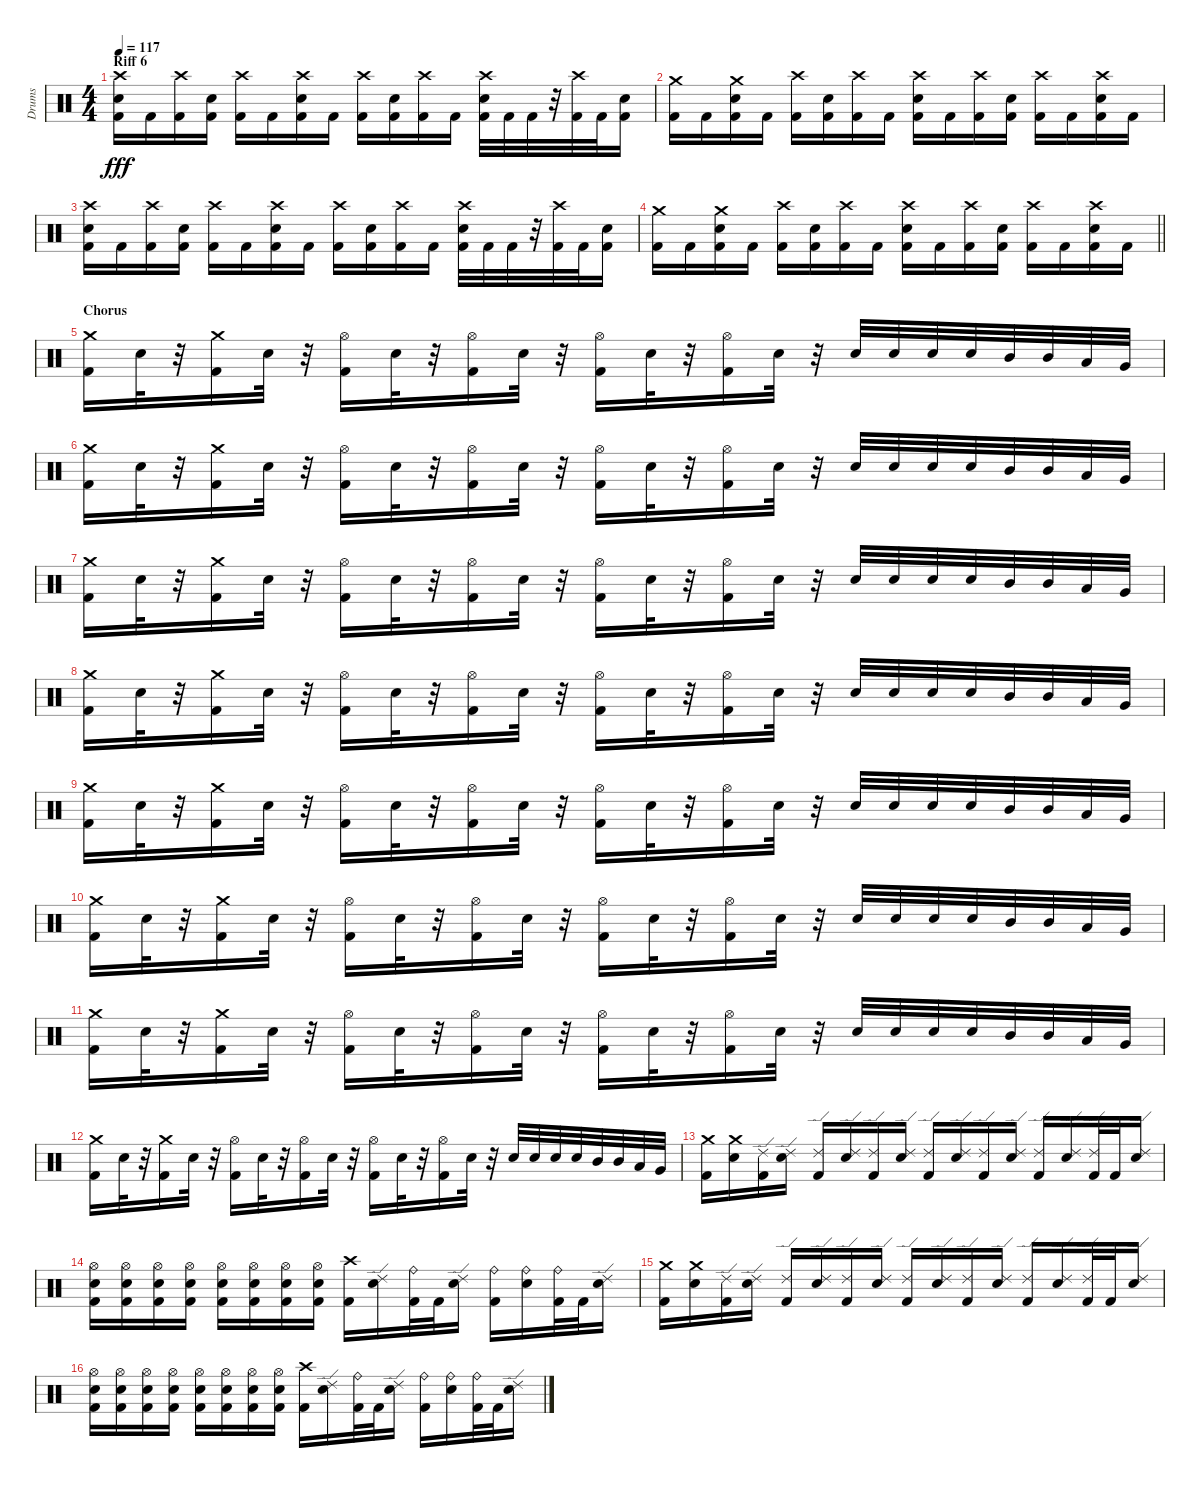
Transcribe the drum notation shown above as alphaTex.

\track ("Drums" "Drums") {instrument percussion}
\staff {score}
\articulation defaults
\ts (4 4)
\section ("" "Riff 6")
\tempo 117
\clef neutral
\ks c
("Kick (hit) 2" "Snare (hit) 2" "Crash high (hit)").16{dy fff} "Kick (hit) 2".16 ("Kick (hit) 2" "Crash high (hit)").16 ("Kick (hit) 2" "Snare (hit) 2").16 ("Kick (hit) 2" "Crash high (hit)").16 "Kick (hit) 2".16 ("Kick (hit) 2" "Snare (hit) 2" "Crash high (hit)").16 "Kick (hit) 2".16 ("Kick (hit) 2" "Crash high (hit)").16 ("Kick (hit) 2" "Snare (hit) 2").16 ("Kick (hit) 2" "Crash high (hit)").16 "Kick (hit) 2".16 ("Kick (hit) 2" "Snare (hit) 2" "Crash high (hit)").32 "Kick (hit) 2".32 "Kick (hit) 2".32 r.32 ("Kick (hit) 2" "Crash high (hit)").32 "Kick (hit) 2".32 ("Kick (hit) 2" "Snare (hit) 2").16 |
("Kick (hit) 2" "Crash medium (hit)").16 "Kick (hit) 2".16 ("Kick (hit) 2" "Snare (hit) 2" "Crash medium (hit)").16 "Kick (hit) 2".16 ("Kick (hit) 2" "Crash high (hit)").16 ("Kick (hit) 2" "Snare (hit) 2").16 ("Kick (hit) 2" "Crash high (hit)").16 "Kick (hit) 2".16 ("Kick (hit) 2" "Snare (hit) 2" "Crash high (hit)").16 "Kick (hit) 2".16 ("Kick (hit) 2" "Crash high (hit)").16 ("Kick (hit) 2" "Snare (hit) 2").16 ("Kick (hit) 2" "Crash high (hit)").16 "Kick (hit) 2".16 ("Kick (hit) 2" "Snare (hit) 2" "Crash high (hit)").16 "Kick (hit) 2".16 |
("Kick (hit) 2" "Snare (hit) 2" "Crash high (hit)").16 "Kick (hit) 2".16 ("Kick (hit) 2" "Crash high (hit)").16 ("Kick (hit) 2" "Snare (hit) 2").16 ("Kick (hit) 2" "Crash high (hit)").16 "Kick (hit) 2".16 ("Kick (hit) 2" "Snare (hit) 2" "Crash high (hit)").16 "Kick (hit) 2".16 ("Kick (hit) 2" "Crash high (hit)").16 ("Kick (hit) 2" "Snare (hit) 2").16 ("Kick (hit) 2" "Crash high (hit)").16 "Kick (hit) 2".16 ("Kick (hit) 2" "Snare (hit) 2" "Crash high (hit)").32 "Kick (hit) 2".32 "Kick (hit) 2".32 r.32 ("Kick (hit) 2" "Crash high (hit)").32 "Kick (hit) 2".32 ("Kick (hit) 2" "Snare (hit) 2").16 |
\barLineRight lightlight
("Kick (hit) 2" "Crash medium (hit)").16 "Kick (hit) 2".16 ("Kick (hit) 2" "Snare (hit) 2" "Crash medium (hit)").16 "Kick (hit) 2".16 ("Kick (hit) 2" "Crash high (hit)").16 ("Kick (hit) 2" "Snare (hit) 2").16 ("Kick (hit) 2" "Crash high (hit)").16 "Kick (hit) 2".16 ("Kick (hit) 2" "Snare (hit) 2" "Crash high (hit)").16 "Kick (hit) 2".16 ("Kick (hit) 2" "Crash high (hit)").16 ("Kick (hit) 2" "Snare (hit) 2").16 ("Kick (hit) 2" "Crash high (hit)").16 "Kick (hit) 2".16 ("Kick (hit) 2" "Snare (hit) 2" "Crash high (hit)").16 "Kick (hit) 2".16 |
\section ("" "Chorus")
("Kick (hit) 2" "Crash medium (hit)").16 "Snare (hit) 2".32 r.32 ("Kick (hit) 2" "Crash medium (hit)").16 "Snare (hit) 2".32 r.32 ("Kick (hit) 2" "Hi-Hat (open)").16 "Snare (hit) 2".32 r.32 ("Kick (hit) 2" "Hi-Hat (open)").16 "Snare (hit) 2".32 r.32 ("Kick (hit) 2" "Hi-Hat (open)").16 "Snare (hit) 2".32 r.32 ("Kick (hit) 2" "Hi-Hat (open)").16 "Snare (hit) 2".32 r.32 "Snare (hit) 2".32 "Snare (hit) 2".32 "Snare (hit) 2".32 "Snare (hit) 2".32 "Mid Tom (hit)".32 "Mid Tom (hit)".32 "Low Tom (hit)".32 "Very Low Tom (hit)".32 |
("Kick (hit) 2" "Crash medium (hit)").16 "Snare (hit) 2".32 r.32 ("Kick (hit) 2" "Crash medium (hit)").16 "Snare (hit) 2".32 r.32 ("Kick (hit) 2" "Hi-Hat (open)").16 "Snare (hit) 2".32 r.32 ("Kick (hit) 2" "Hi-Hat (open)").16 "Snare (hit) 2".32 r.32 ("Kick (hit) 2" "Hi-Hat (open)").16 "Snare (hit) 2".32 r.32 ("Kick (hit) 2" "Hi-Hat (open)").16 "Snare (hit) 2".32 r.32 "Snare (hit) 2".32 "Snare (hit) 2".32 "Snare (hit) 2".32 "Snare (hit) 2".32 "Mid Tom (hit)".32 "Mid Tom (hit)".32 "Low Tom (hit)".32 "Very Low Tom (hit)".32 |
("Kick (hit) 2" "Crash medium (hit)").16 "Snare (hit) 2".32 r.32 ("Kick (hit) 2" "Crash medium (hit)").16 "Snare (hit) 2".32 r.32 ("Kick (hit) 2" "Hi-Hat (open)").16 "Snare (hit) 2".32 r.32 ("Kick (hit) 2" "Hi-Hat (open)").16 "Snare (hit) 2".32 r.32 ("Kick (hit) 2" "Hi-Hat (open)").16 "Snare (hit) 2".32 r.32 ("Kick (hit) 2" "Hi-Hat (open)").16 "Snare (hit) 2".32 r.32 "Snare (hit) 2".32 "Snare (hit) 2".32 "Snare (hit) 2".32 "Snare (hit) 2".32 "Mid Tom (hit)".32 "Mid Tom (hit)".32 "Low Tom (hit)".32 "Very Low Tom (hit)".32 |
("Kick (hit) 2" "Crash medium (hit)").16 "Snare (hit) 2".32 r.32 ("Kick (hit) 2" "Crash medium (hit)").16 "Snare (hit) 2".32 r.32 ("Kick (hit) 2" "Hi-Hat (open)").16 "Snare (hit) 2".32 r.32 ("Kick (hit) 2" "Hi-Hat (open)").16 "Snare (hit) 2".32 r.32 ("Kick (hit) 2" "Hi-Hat (open)").16 "Snare (hit) 2".32 r.32 ("Kick (hit) 2" "Hi-Hat (open)").16 "Snare (hit) 2".32 r.32 "Snare (hit) 2".32 "Snare (hit) 2".32 "Snare (hit) 2".32 "Snare (hit) 2".32 "Mid Tom (hit)".32 "Mid Tom (hit)".32 "Low Tom (hit)".32 "Very Low Tom (hit)".32 |
("Kick (hit) 2" "Crash medium (hit)").16 "Snare (hit) 2".32 r.32 ("Kick (hit) 2" "Crash medium (hit)").16 "Snare (hit) 2".32 r.32 ("Kick (hit) 2" "Hi-Hat (open)").16 "Snare (hit) 2".32 r.32 ("Kick (hit) 2" "Hi-Hat (open)").16 "Snare (hit) 2".32 r.32 ("Kick (hit) 2" "Hi-Hat (open)").16 "Snare (hit) 2".32 r.32 ("Kick (hit) 2" "Hi-Hat (open)").16 "Snare (hit) 2".32 r.32 "Snare (hit) 2".32 "Snare (hit) 2".32 "Snare (hit) 2".32 "Snare (hit) 2".32 "Mid Tom (hit)".32 "Mid Tom (hit)".32 "Low Tom (hit)".32 "Very Low Tom (hit)".32 |
("Kick (hit) 2" "Crash medium (hit)").16 "Snare (hit) 2".32 r.32 ("Kick (hit) 2" "Crash medium (hit)").16 "Snare (hit) 2".32 r.32 ("Kick (hit) 2" "Hi-Hat (open)").16 "Snare (hit) 2".32 r.32 ("Kick (hit) 2" "Hi-Hat (open)").16 "Snare (hit) 2".32 r.32 ("Kick (hit) 2" "Hi-Hat (open)").16 "Snare (hit) 2".32 r.32 ("Kick (hit) 2" "Hi-Hat (open)").16 "Snare (hit) 2".32 r.32 "Snare (hit) 2".32 "Snare (hit) 2".32 "Snare (hit) 2".32 "Snare (hit) 2".32 "Mid Tom (hit)".32 "Mid Tom (hit)".32 "Low Tom (hit)".32 "Very Low Tom (hit)".32 |
("Kick (hit) 2" "Crash medium (hit)").16 "Snare (hit) 2".32 r.32 ("Kick (hit) 2" "Crash medium (hit)").16 "Snare (hit) 2".32 r.32 ("Kick (hit) 2" "Hi-Hat (open)").16 "Snare (hit) 2".32 r.32 ("Kick (hit) 2" "Hi-Hat (open)").16 "Snare (hit) 2".32 r.32 ("Kick (hit) 2" "Hi-Hat (open)").16 "Snare (hit) 2".32 r.32 ("Kick (hit) 2" "Hi-Hat (open)").16 "Snare (hit) 2".32 r.32 "Snare (hit) 2".32 "Snare (hit) 2".32 "Snare (hit) 2".32 "Snare (hit) 2".32 "Mid Tom (hit)".32 "Mid Tom (hit)".32 "Low Tom (hit)".32 "Very Low Tom (hit)".32 |
("Kick (hit) 2" "Crash medium (hit)").16 "Snare (hit) 2".32 r.32 ("Kick (hit) 2" "Crash medium (hit)").16 "Snare (hit) 2".32 r.32 ("Kick (hit) 2" "Hi-Hat (open)").16 "Snare (hit) 2".32 r.32 ("Kick (hit) 2" "Hi-Hat (open)").16 "Snare (hit) 2".32 r.32 ("Kick (hit) 2" "Hi-Hat (open)").16 "Snare (hit) 2".32 r.32 ("Kick (hit) 2" "Hi-Hat (open)").16 "Snare (hit) 2".32 r.32 "Snare (hit) 2".32 "Snare (hit) 2".32 "Snare (hit) 2".32 "Snare (hit) 2".32 "Mid Tom (hit)".32 "Mid Tom (hit)".32 "Low Tom (hit)".32 "Very Low Tom (hit)".32 |
("Kick (hit) 2" "Crash medium (hit)").16 ("Snare (hit) 2" "Crash medium (hit)").16 ("Kick (hit) 2" "Ride (edge) 2").16 ("Snare (hit) 2" "Ride (edge) 2").16 ("Kick (hit) 2" "Ride (edge) 2").16 ("Snare (hit) 2" "Ride (edge) 2").16 ("Kick (hit) 2" "Ride (edge) 2").16 ("Snare (hit) 2" "Ride (edge) 2").16 ("Kick (hit) 2" "Ride (edge) 2").16 ("Snare (hit) 2" "Ride (edge) 2").16 ("Kick (hit) 2" "Ride (edge) 2").16 ("Snare (hit) 2" "Ride (edge) 2").16 ("Kick (hit) 2" "Ride (edge) 2").16 ("Snare (hit) 2" "Ride (edge) 2").16 ("Kick (hit) 2" "Ride (edge) 2").32 "Kick (hit) 2".32 ("Snare (hit) 2" "Ride (edge) 2").16 |
("Kick (hit) 2" "Snare (hit) 2" "Hi-Hat (open)").16 ("Kick (hit) 2" "Snare (hit) 2" "Hi-Hat (open)").16 ("Kick (hit) 2" "Snare (hit) 2" "Hi-Hat (open)").16 ("Kick (hit) 2" "Snare (hit) 2" "Hi-Hat (open)").16 ("Kick (hit) 2" "Snare (hit) 2" "Hi-Hat (open)").16 ("Kick (hit) 2" "Snare (hit) 2" "Hi-Hat (open)").16 ("Kick (hit) 2" "Snare (hit) 2" "Hi-Hat (open)").16 ("Kick (hit) 2" "Snare (hit) 2" "Hi-Hat (open)").16 ("Kick (hit) 2" "Crash high (hit)").16 ("Snare (hit) 2" "Ride (edge) 2").16 ("Kick (hit) 2" "Ride (bell)").32 "Kick (hit) 2".32 ("Snare (hit) 2" "Ride (edge) 2").16 ("Kick (hit) 2" "Ride (bell)").16 ("Snare (hit) 2" "Ride (bell)").16 ("Kick (hit) 2" "Ride (bell)").32 "Kick (hit) 2".32 ("Snare (hit) 2" "Ride (edge) 2").16 |
("Kick (hit) 2" "Crash medium (hit)").16 ("Snare (hit) 2" "Crash medium (hit)").16 ("Kick (hit) 2" "Ride (edge) 2").16 ("Snare (hit) 2" "Ride (edge) 2").16 ("Kick (hit) 2" "Ride (edge) 2").16 ("Snare (hit) 2" "Ride (edge) 2").16 ("Kick (hit) 2" "Ride (edge) 2").16 ("Snare (hit) 2" "Ride (edge) 2").16 ("Kick (hit) 2" "Ride (edge) 2").16 ("Snare (hit) 2" "Ride (edge) 2").16 ("Kick (hit) 2" "Ride (edge) 2").16 ("Snare (hit) 2" "Ride (edge) 2").16 ("Kick (hit) 2" "Ride (edge) 2").16 ("Snare (hit) 2" "Ride (edge) 2").16 ("Kick (hit) 2" "Ride (edge) 2").32 "Kick (hit) 2".32 ("Snare (hit) 2" "Ride (edge) 2").16 |
("Kick (hit) 2" "Snare (hit) 2" "Hi-Hat (open)").16 ("Kick (hit) 2" "Snare (hit) 2" "Hi-Hat (open)").16 ("Kick (hit) 2" "Snare (hit) 2" "Hi-Hat (open)").16 ("Kick (hit) 2" "Snare (hit) 2" "Hi-Hat (open)").16 ("Kick (hit) 2" "Snare (hit) 2" "Hi-Hat (open)").16 ("Kick (hit) 2" "Snare (hit) 2" "Hi-Hat (open)").16 ("Kick (hit) 2" "Snare (hit) 2" "Hi-Hat (open)").16 ("Kick (hit) 2" "Snare (hit) 2" "Hi-Hat (open)").16 ("Kick (hit) 2" "Crash high (hit)").16 ("Snare (hit) 2" "Ride (edge) 2").16 ("Kick (hit) 2" "Ride (bell)").32 "Kick (hit) 2".32 ("Snare (hit) 2" "Ride (edge) 2").16 ("Kick (hit) 2" "Ride (bell)").16 ("Snare (hit) 2" "Ride (bell)").16 ("Kick (hit) 2" "Ride (bell)").32 "Kick (hit) 2".32 ("Snare (hit) 2" "Ride (edge) 2").16
